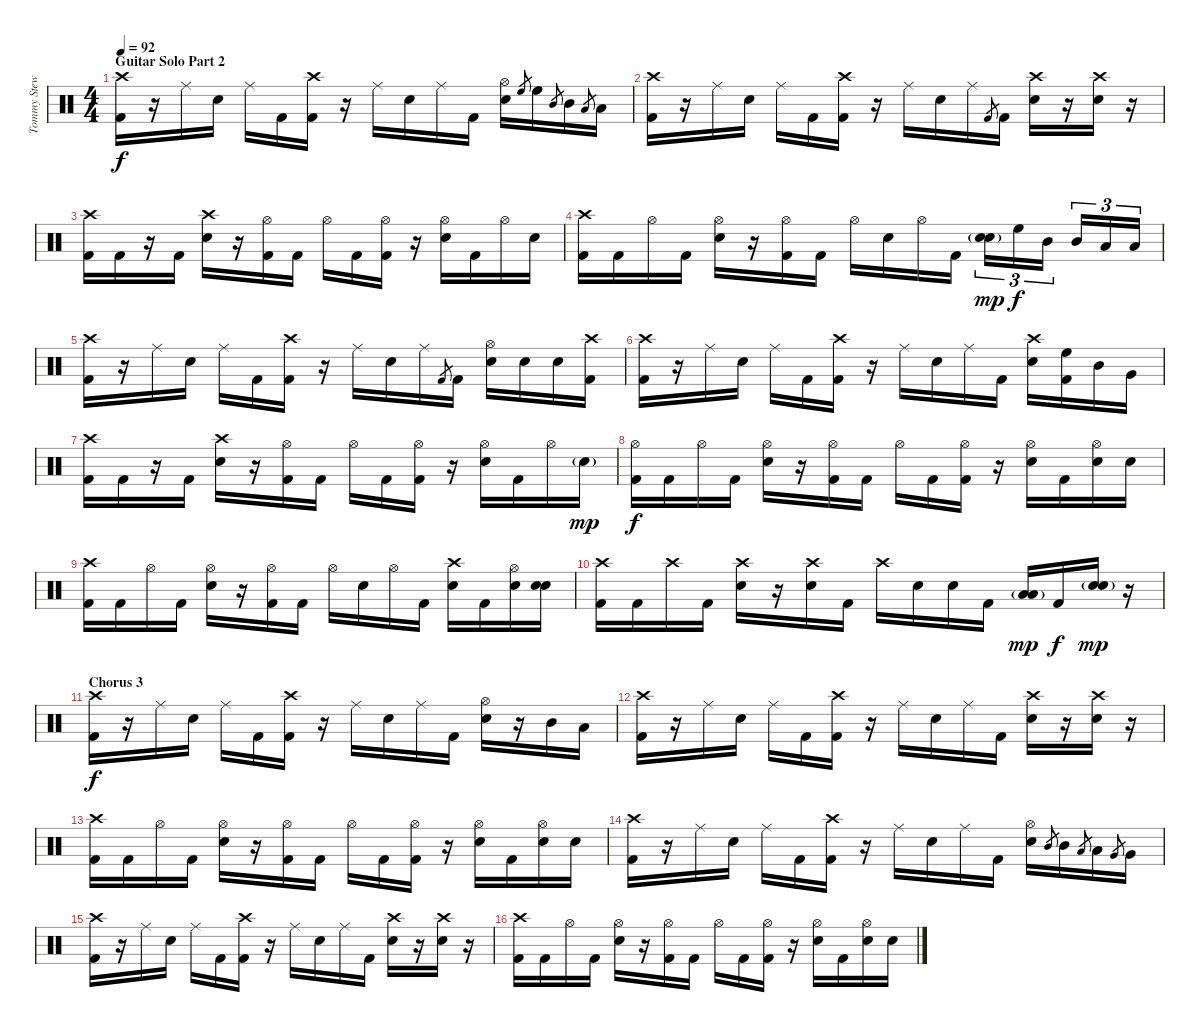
\track ("Tommy Stewart - Drums" "Tommy Stew") {instrument percussion}
\staff {score}
\articulation defaults
\ts (4 4)
\section ("" "Guitar Solo Part 2")
\tempo 92
\clef neutral
\ks c
("Crash high (hit)" "Kick (hit) 2").16{dy f} r.16 "Ride (middle)".16 "Snare (hit) 2".16 "Ride (middle)".16 "Kick (hit) 2".16 ("Crash high (hit)" "Kick (hit) 2").16 r.16 "Ride (middle)".16 "Snare (hit) 2".16 "Ride (middle)".16 "Kick (hit) 2".16 ("Hi-Hat (open)" "Snare (hit) 2").16 "High Floor Tom (hit)".8{gr} "High Floor Tom (hit)".16 "Mid Tom (hit)".8{gr} "Mid Tom (hit)".16 "Low Tom (hit)".8{gr} "Low Tom (hit)".16 |
("Crash high (hit)" "Kick (hit) 2").16 r.16 "Ride (middle)".16 "Snare (hit) 2".16 "Ride (middle)".16 "Kick (hit) 2".16 ("Crash high (hit)" "Kick (hit) 2").16 r.16 "Ride (middle)".16 "Snare (hit) 2".16 "Ride (middle)".16 "Kick (hit) 2".8{gr} "Kick (hit) 2".16 ("Crash high (hit)" "Snare (hit) 2").16 r.16 ("Crash high (hit)" "Snare (hit) 2").16 r.16 |
("Crash high (hit)" "Kick (hit) 2").16 "Kick (hit) 2".16 r.16 "Kick (hit) 2".16 ("Crash high (hit)" "Snare (hit) 2").16 r.16 ("Hi-Hat (open)" "Kick (hit) 2").16 "Kick (hit) 2".16 "Hi-Hat (open)".16 "Kick (hit) 2".16 ("Hi-Hat (open)" "Kick (hit) 2").16 r.16 ("Hi-Hat (open)" "Snare (hit) 2").16 "Kick (hit) 2".16 "Hi-Hat (open)".16 "Snare (hit) 2".16 |
("Crash high (hit)" "Kick (hit) 2").16 "Kick (hit) 2".16 "Hi-Hat (open)".16 "Kick (hit) 2".16 ("Hi-Hat (open)" "Snare (hit) 2").16 r.16 ("Hi-Hat (open)" "Kick (hit) 2").16 "Kick (hit) 2".16 "Hi-Hat (open)".16 "Snare (hit) 2".16 "Hi-Hat (open)".16 "Kick (hit) 2".16 ("Snare (hit) 2"{g} "Snare (hit) 2").16{tu (3 2) dy mp} "High Floor Tom (hit)".16{tu (3 2) dy f} "Mid Tom (hit)".16{tu (3 2)} "Mid Tom (hit)".16{tu (3 2)} "Low Tom (hit)".16{tu (3 2)} "Low Tom (hit)".16{tu (3 2)} |
("Crash high (hit)" "Kick (hit) 2").16 r.16 "Ride (middle)".16 "Snare (hit) 2".16 "Ride (middle)".16 "Kick (hit) 2".16 ("Crash high (hit)" "Kick (hit) 2").16 r.16 "Ride (middle)".16 "Snare (hit) 2".16 "Ride (middle)".16 "Kick (hit) 2".8{gr} "Kick (hit) 2".16 ("Hi-Hat (open)" "Snare (hit) 2").16 "Snare (hit) 2".16 "Snare (hit) 2".16 ("Crash high (hit)" "Kick (hit) 2").16 |
("Crash high (hit)" "Kick (hit) 2").16 r.16 "Ride (middle)".16 "Snare (hit) 2".16 "Ride (middle)".16 "Kick (hit) 2".16 ("Crash high (hit)" "Kick (hit) 2").16 r.16 "Ride (middle)".16 "Snare (hit) 2".16 "Ride (middle)".16 "Kick (hit) 2".16 ("Crash high (hit)" "Snare (hit) 2").16 ("High Floor Tom (hit)" "Kick (hit) 2").16 "Mid Tom (hit)".16 "Very Low Tom (hit)".16 |
("Crash high (hit)" "Kick (hit) 2").16 "Kick (hit) 2".16 r.16 "Kick (hit) 2".16 ("Crash high (hit)" "Snare (hit) 2").16 r.16 ("Hi-Hat (open)" "Kick (hit) 2").16 "Kick (hit) 2".16 "Hi-Hat (open)".16 "Kick (hit) 2".16 ("Hi-Hat (open)" "Kick (hit) 2").16 r.16 ("Hi-Hat (open)" "Snare (hit) 2").16 "Kick (hit) 2".16 "Hi-Hat (open)".16 "Snare (hit) 2"{g}.16{dy mp} |
("Hi-Hat (open)" "Kick (hit) 2").16{dy f} "Kick (hit) 2".16 "Hi-Hat (open)".16 "Kick (hit) 2".16 ("Hi-Hat (open)" "Snare (hit) 2").16 r.16 ("Hi-Hat (open)" "Kick (hit) 2").16 "Kick (hit) 2".16 "Hi-Hat (open)".16 "Kick (hit) 2".16 ("Hi-Hat (open)" "Kick (hit) 2").16 r.16 ("Hi-Hat (open)" "Snare (hit) 2").16 "Kick (hit) 2".16 ("Hi-Hat (open)" "Snare (hit) 2").16 "Snare (hit) 2".16 |
("Crash high (hit)" "Kick (hit) 2").16 "Kick (hit) 2".16 "Hi-Hat (open)".16 "Kick (hit) 2".16 ("Hi-Hat (open)" "Snare (hit) 2").16 r.16 ("Hi-Hat (open)" "Kick (hit) 2").16 "Kick (hit) 2".16 "Hi-Hat (open)".16 "Snare (hit) 2".16 "Hi-Hat (open)".16 "Kick (hit) 2".16 ("Crash high (hit)" "Snare (hit) 2").16 "Kick (hit) 2".16 ("Hi-Hat (open)" "Snare (hit) 2").16 ("Snare (hit) 2" "Snare (hit) 2").16 |
("Crash high (hit)" "Kick (hit) 2").16 "Kick (hit) 2".16 "Crash high (hit)".16 "Kick (hit) 2".16 ("Crash high (hit)" "Snare (hit) 2").16 r.16 ("Crash high (hit)" "Snare (hit) 2").16 "Kick (hit) 2".16 "Crash high (hit)".16 "Snare (hit) 2".16 "Snare (hit) 2".16 "Kick (hit) 2".16 ("Low Tom (hit)"{g} "Low Tom (hit)").16{dy mp} "Kick (hit) 2".16{dy f} ("Snare (hit) 2"{g} "Snare (hit) 2").16{dy mp} r.16 |
\section ("" "Chorus 3")
("Crash high (hit)" "Kick (hit) 2").16{dy f} r.16 "Ride (middle)".16 "Snare (hit) 2".16 "Ride (middle)".16 "Kick (hit) 2".16 ("Crash high (hit)" "Kick (hit) 2").16 r.16 "Ride (middle)".16 "Snare (hit) 2".16 "Ride (middle)".16 "Kick (hit) 2".16 ("Hi-Hat (open)" "Snare (hit) 2").16 r.16 "Mid Tom (hit)".16 "Low Tom (hit)".16 |
("Crash high (hit)" "Kick (hit) 2").16 r.16 "Ride (middle)".16 "Snare (hit) 2".16 "Ride (middle)".16 "Kick (hit) 2".16 ("Crash high (hit)" "Kick (hit) 2").16 r.16 "Ride (middle)".16 "Snare (hit) 2".16 "Ride (middle)".16 "Kick (hit) 2".16 ("Crash high (hit)" "Snare (hit) 2").16 r.16 ("Crash high (hit)" "Snare (hit) 2").16 r.16 |
("Crash high (hit)" "Kick (hit) 2").16 "Kick (hit) 2".16 "Hi-Hat (open)".16 "Kick (hit) 2".16 ("Hi-Hat (open)" "Snare (hit) 2").16 r.16 ("Hi-Hat (open)" "Kick (hit) 2").16 "Kick (hit) 2".16 "Hi-Hat (open)".16 "Kick (hit) 2".16 ("Hi-Hat (open)" "Kick (hit) 2").16 r.16 ("Hi-Hat (open)" "Snare (hit) 2").16 "Kick (hit) 2".16 ("Hi-Hat (open)" "Snare (hit) 2").16 "Snare (hit) 2".16 |
("Crash high (hit)" "Kick (hit) 2").16 r.16 "Ride (middle)".16 "Snare (hit) 2".16 "Ride (middle)".16 "Kick (hit) 2".16 ("Crash high (hit)" "Kick (hit) 2").16 r.16 "Ride (middle)".16 "Snare (hit) 2".16 "Ride (middle)".16 "Kick (hit) 2".16 ("Hi-Hat (open)" "Snare (hit) 2").16 "Mid Tom (hit)".8{gr} "Mid Tom (hit)".16 "Low Tom (hit)".8{gr} "Low Tom (hit)".16 "Very Low Tom (hit)".8{gr} "Very Low Tom (hit)".16 |
("Crash high (hit)" "Kick (hit) 2").16 r.16 "Ride (middle)".16 "Snare (hit) 2".16 "Ride (middle)".16 "Kick (hit) 2".16 ("Crash high (hit)" "Kick (hit) 2").16 r.16 "Ride (middle)".16 "Snare (hit) 2".16 "Ride (middle)".16 "Kick (hit) 2".16 ("Crash high (hit)" "Snare (hit) 2").16 r.16 ("Crash high (hit)" "Snare (hit) 2").16 r.16 |
("Crash high (hit)" "Kick (hit) 2").16 "Kick (hit) 2".16 "Hi-Hat (open)".16 "Kick (hit) 2".16 ("Hi-Hat (open)" "Snare (hit) 2").16 r.16 ("Hi-Hat (open)" "Kick (hit) 2").16 "Kick (hit) 2".16 "Hi-Hat (open)".16 "Kick (hit) 2".16 ("Hi-Hat (open)" "Kick (hit) 2").16 r.16 ("Hi-Hat (open)" "Snare (hit) 2").16 "Kick (hit) 2".16 ("Hi-Hat (open)" "Snare (hit) 2").16 "Snare (hit) 2".16
